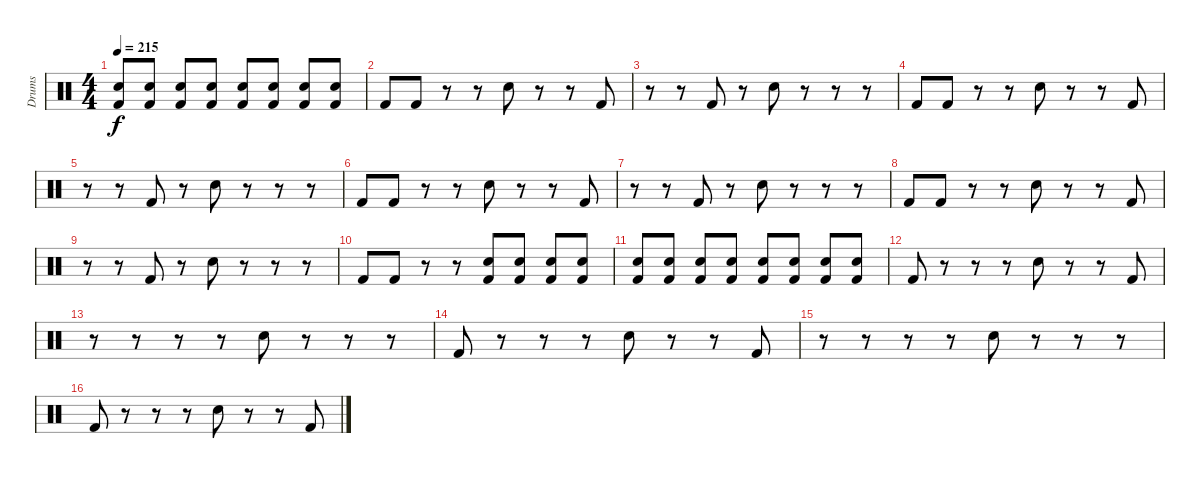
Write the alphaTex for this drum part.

\track ("Drums" "Drums") {instrument percussion}
\staff {score}
\articulation defaults
\ts (4 4)
\tempo 215
\clef neutral
\ks c
("Kick (hit) 2" "Snare (hit) 2").8{dy f} ("Kick (hit) 2" "Snare (hit) 2").8 ("Kick (hit) 2" "Snare (hit) 2").8 ("Kick (hit) 2" "Snare (hit) 2").8 ("Kick (hit) 2" "Snare (hit) 2").8 ("Kick (hit) 2" "Snare (hit) 2").8 ("Kick (hit) 2" "Snare (hit) 2").8 ("Kick (hit) 2" "Snare (hit) 2").8 |
"Kick (hit) 2".8 "Kick (hit) 2".8 r.8 r.8 "Electric Snare (hit)".8 r.8 r.8 "Kick (hit) 2".8 |
r.8 r.8 "Kick (hit) 2".8 r.8 "Electric Snare (hit)".8 r.8 r.8 r.8 |
"Kick (hit) 2".8 "Kick (hit) 2".8 r.8 r.8 "Electric Snare (hit)".8 r.8 r.8 "Kick (hit) 2".8 |
r.8 r.8 "Kick (hit) 2".8 r.8 "Electric Snare (hit)".8 r.8 r.8 r.8 |
"Kick (hit) 2".8 "Kick (hit) 2".8 r.8 r.8 "Electric Snare (hit)".8 r.8 r.8 "Kick (hit) 2".8 |
r.8 r.8 "Kick (hit) 2".8 r.8 "Electric Snare (hit)".8 r.8 r.8 r.8 |
"Kick (hit) 2".8 "Kick (hit) 2".8 r.8 r.8 "Electric Snare (hit)".8 r.8 r.8 "Kick (hit) 2".8 |
r.8 r.8 "Kick (hit) 2".8 r.8 "Electric Snare (hit)".8 r.8 r.8 r.8 |
"Kick (hit) 2".8 "Kick (hit) 2".8 r.8 r.8 ("Kick (hit) 2" "Snare (hit) 2").8 ("Kick (hit) 2" "Snare (hit) 2").8 ("Kick (hit) 2" "Snare (hit) 2").8 ("Kick (hit) 2" "Snare (hit) 2").8 |
("Kick (hit) 2" "Snare (hit) 2").8 ("Kick (hit) 2" "Snare (hit) 2").8 ("Kick (hit) 2" "Snare (hit) 2").8 ("Kick (hit) 2" "Snare (hit) 2").8 ("Kick (hit) 2" "Snare (hit) 2").8 ("Kick (hit) 2" "Snare (hit) 2").8 ("Kick (hit) 2" "Snare (hit) 2").8 ("Kick (hit) 2" "Snare (hit) 2").8 |
"Kick (hit) 2".8 r.8 r.8 r.8 "Electric Snare (hit)".8 r.8 r.8 "Kick (hit) 2".8 |
r.8 r.8 r.8 r.8 "Electric Snare (hit)".8 r.8 r.8 r.8 |
"Kick (hit) 2".8 r.8 r.8 r.8 "Electric Snare (hit)".8 r.8 r.8 "Kick (hit) 2".8 |
r.8 r.8 r.8 r.8 "Electric Snare (hit)".8 r.8 r.8 r.8 |
"Kick (hit) 2".8 r.8 r.8 r.8 "Electric Snare (hit)".8 r.8 r.8 "Kick (hit) 2".8
